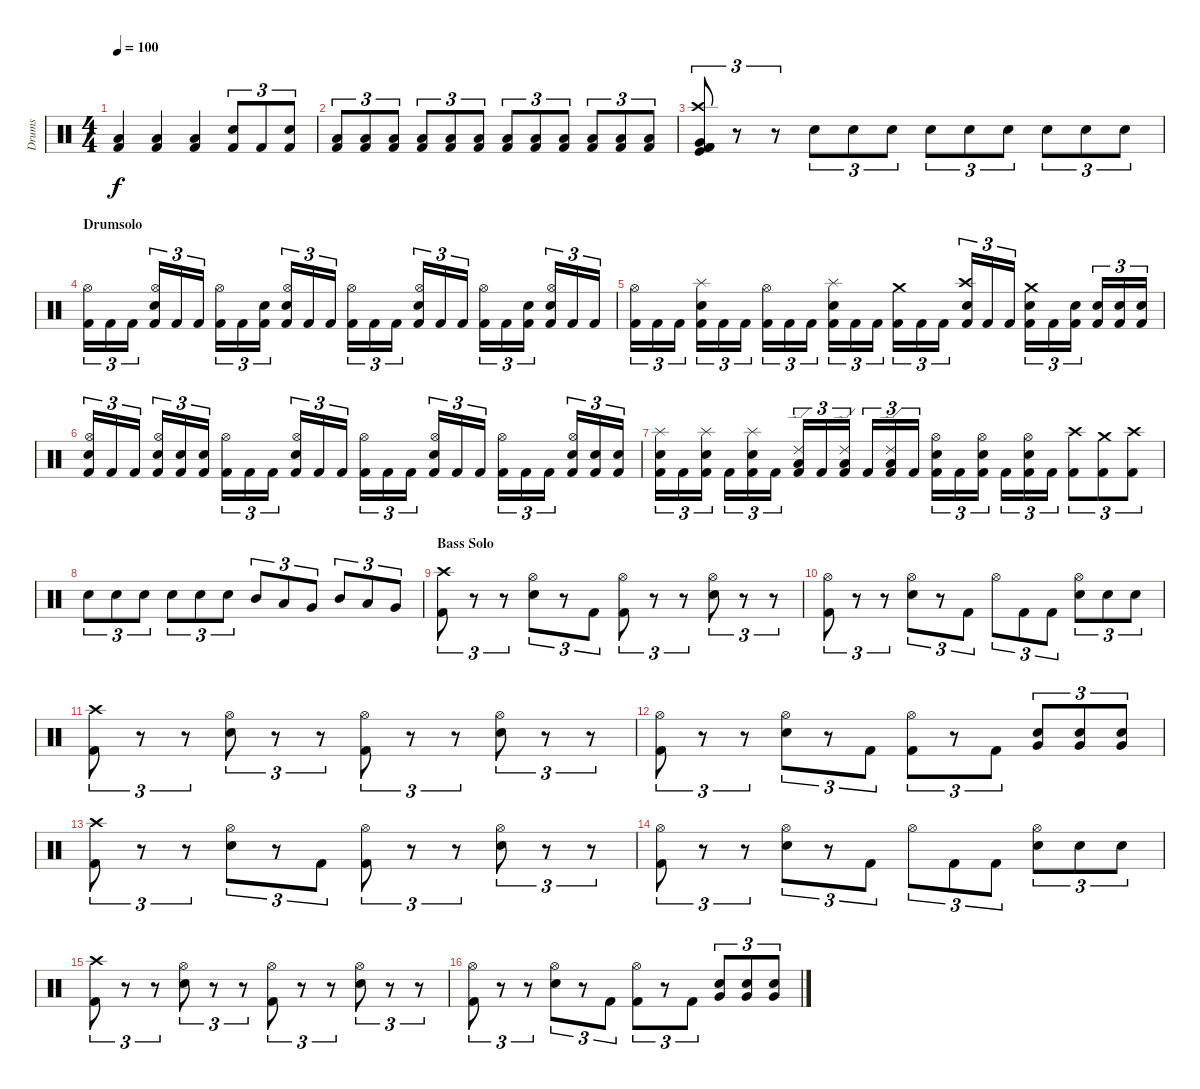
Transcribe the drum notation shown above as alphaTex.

\track ("Drums" "Drums") {instrument percussion}
\staff {score}
\articulation defaults
\ts (4 4)
\tempo 100
\clef neutral
\ks c
("Low Tom (hit)" "Kick (hit) 2").4{dy f} ("Low Tom (hit)" "Kick (hit) 2").4 ("Low Tom (hit)" "Kick (hit) 2").4 ("Snare (hit) 2" "Kick (hit) 2").8{tu (3 2)} "Kick (hit) 2".8{tu (3 2)} ("Snare (hit) 2" "Kick (hit) 2").8{tu (3 2)} |
("Low Tom (hit)" "Kick (hit) 2").8{tu (3 2)} ("Low Tom (hit)" "Kick (hit) 2").8{tu (3 2)} ("Low Tom (hit)" "Kick (hit) 2").8{tu (3 2)} ("Low Tom (hit)" "Kick (hit) 2").8{tu (3 2)} ("Low Tom (hit)" "Kick (hit) 2").8{tu (3 2)} ("Low Tom (hit)" "Kick (hit) 2").8{tu (3 2)} ("Low Tom (hit)" "Kick (hit) 2").8{tu (3 2)} ("Low Tom (hit)" "Kick (hit) 2").8{tu (3 2)} ("Low Tom (hit)" "Kick (hit) 2").8{tu (3 2)} ("Low Tom (hit)" "Kick (hit) 2").8{tu (3 2)} ("Low Tom (hit)" "Kick (hit) 2").8{tu (3 2)} ("Low Tom (hit)" "Kick (hit) 2").8{tu (3 2)} |
("Crash high (hit)" "Very Low Tom (hit)" "Kick (hit)" "Kick (hit) 2" "Kick (hit) 2").8{tu (3 2)} r.8{tu (3 2)} r.8{tu (3 2)} "Snare (hit) 2".8{tu (3 2)} "Snare (hit) 2".8{tu (3 2)} "Snare (hit) 2".8{tu (3 2)} "Snare (hit) 2".8{tu (3 2)} "Snare (hit) 2".8{tu (3 2)} "Snare (hit) 2".8{tu (3 2)} "Snare (hit) 2".8{tu (3 2)} "Snare (hit) 2".8{tu (3 2)} "Snare (hit) 2".8{tu (3 2)} |
\section ("" "Drumsolo")
("Hi-Hat (open)" "Kick (hit) 2").16{tu (3 2)} "Kick (hit) 2".16{tu (3 2)} "Kick (hit) 2".16{tu (3 2)} ("Hi-Hat (open)" "Electric Snare (hit)" "Kick (hit) 2").16{tu (3 2)} "Kick (hit) 2".16{tu (3 2)} "Kick (hit) 2".16{tu (3 2)} ("Hi-Hat (open)" "Kick (hit) 2").16{tu (3 2)} "Kick (hit) 2".16{tu (3 2)} ("Electric Snare (hit)" "Kick (hit) 2").16{tu (3 2)} ("Hi-Hat (open)" "Electric Snare (hit)" "Kick (hit) 2").16{tu (3 2)} "Kick (hit) 2".16{tu (3 2)} "Kick (hit) 2".16{tu (3 2)} ("Hi-Hat (open)" "Kick (hit) 2").16{tu (3 2)} "Kick (hit) 2".16{tu (3 2)} "Kick (hit) 2".16{tu (3 2)} ("Hi-Hat (open)" "Electric Snare (hit)" "Kick (hit) 2").16{tu (3 2)} "Kick (hit) 2".16{tu (3 2)} "Kick (hit) 2".16{tu (3 2)} ("Hi-Hat (open)" "Kick (hit) 2").16{tu (3 2)} "Kick (hit) 2".16{tu (3 2)} ("Electric Snare (hit)" "Kick (hit) 2").16{tu (3 2)} ("Hi-Hat (open)" "Electric Snare (hit)" "Kick (hit) 2").16{tu (3 2)} "Kick (hit) 2".16{tu (3 2)} "Kick (hit) 2".16{tu (3 2)} |
("Hi-Hat (open)" "Kick (hit) 2").16{tu (3 2)} "Kick (hit) 2".16{tu (3 2)} "Kick (hit) 2".16{tu (3 2)} ("Splash (hit)" "Electric Snare (hit)" "Kick (hit) 2").16{tu (3 2)} "Kick (hit) 2".16{tu (3 2)} "Kick (hit) 2".16{tu (3 2)} ("Hi-Hat (open)" "Kick (hit) 2").16{tu (3 2)} "Kick (hit) 2".16{tu (3 2)} "Kick (hit) 2".16{tu (3 2)} ("Splash (hit)" "Electric Snare (hit)" "Kick (hit) 2").16{tu (3 2)} "Kick (hit) 2".16{tu (3 2)} "Kick (hit) 2".16{tu (3 2)} ("Crash medium (hit)" "Kick (hit) 2").16{tu (3 2)} "Kick (hit) 2".16{tu (3 2)} "Kick (hit) 2".16{tu (3 2)} ("Crash high (hit)" "Electric Snare (hit)" "Kick (hit) 2").16{tu (3 2)} "Kick (hit) 2".16{tu (3 2)} "Kick (hit) 2".16{tu (3 2)} ("Crash medium (hit)" "Electric Snare (hit)" "Kick (hit) 2").16{tu (3 2)} "Kick (hit) 2".16{tu (3 2)} ("Electric Snare (hit)" "Kick (hit) 2").16{tu (3 2)} ("Electric Snare (hit)" "Kick (hit) 2").16{tu (3 2)} ("Electric Snare (hit)" "Kick (hit) 2").16{tu (3 2)} ("Electric Snare (hit)" "Kick (hit) 2").16{tu (3 2)} |
("Hi-Hat (open)" "Electric Snare (hit)" "Kick (hit) 2").16{tu (3 2)} "Kick (hit) 2".16{tu (3 2)} "Kick (hit) 2".16{tu (3 2)} ("Hi-Hat (open)" "Electric Snare (hit)" "Kick (hit) 2").16{tu (3 2)} ("Electric Snare (hit)" "Kick (hit) 2").16{tu (3 2)} ("Electric Snare (hit)" "Kick (hit) 2").16{tu (3 2)} ("Hi-Hat (open)" "Kick (hit) 2").16{tu (3 2)} "Kick (hit) 2".16{tu (3 2)} "Kick (hit) 2".16{tu (3 2)} ("Hi-Hat (open)" "Electric Snare (hit)" "Kick (hit) 2").16{tu (3 2)} "Kick (hit) 2".16{tu (3 2)} "Kick (hit) 2".16{tu (3 2)} ("Hi-Hat (open)" "Kick (hit) 2").16{tu (3 2)} "Kick (hit) 2".16{tu (3 2)} "Kick (hit) 2".16{tu (3 2)} ("Hi-Hat (open)" "Electric Snare (hit)" "Kick (hit) 2").16{tu (3 2)} "Kick (hit) 2".16{tu (3 2)} "Kick (hit) 2".16{tu (3 2)} ("Hi-Hat (open)" "Kick (hit) 2").16{tu (3 2)} "Kick (hit) 2".16{tu (3 2)} "Kick (hit) 2".16{tu (3 2)} ("Hi-Hat (open)" "Electric Snare (hit)" "Kick (hit) 2").16{tu (3 2)} ("Electric Snare (hit)" "Kick (hit) 2").16{tu (3 2)} ("Electric Snare (hit)" "Kick (hit) 2").16{tu (3 2)} |
("Splash (hit)" "Snare (hit) 2" "Kick (hit) 2").16{tu (3 2)} "Kick (hit) 2".16{tu (3 2)} ("Splash (hit)" "Snare (hit) 2" "Kick (hit) 2").16{tu (3 2)} "Kick (hit) 2".16{tu (3 2)} ("Splash (hit)" "Snare (hit) 2" "Kick (hit) 2").16{tu (3 2)} "Kick (hit) 2".16{tu (3 2)} ("Ride (edge) 2" "Low Tom (hit)" "Kick (hit) 2").16{tu (3 2)} "Kick (hit) 2".16{tu (3 2)} ("Ride (edge) 2" "Low Tom (hit)" "Kick (hit) 2").16{tu (3 2)} "Kick (hit) 2".16{tu (3 2)} ("Ride (edge) 2" "Low Tom (hit)" "Kick (hit) 2").16{tu (3 2)} "Kick (hit) 2".16{tu (3 2)} ("Hi-Hat (open)" "Snare (hit) 2" "Kick (hit) 2").16{tu (3 2)} "Kick (hit) 2".16{tu (3 2)} ("Hi-Hat (open)" "Snare (hit) 2" "Kick (hit) 2").16{tu (3 2)} "Kick (hit) 2".16{tu (3 2)} ("Hi-Hat (open)" "Snare (hit) 2" "Kick (hit) 2").16{tu (3 2)} "Kick (hit) 2".16{tu (3 2)} ("Crash high (hit)" "Kick (hit) 2").8{tu (3 2)} ("Crash medium (hit)" "Kick (hit) 2").8{tu (3 2)} ("Crash high (hit)" "Kick (hit) 2").8{tu (3 2)} |
"Snare (hit) 2".8{tu (3 2)} "Snare (hit) 2".8{tu (3 2)} "Snare (hit) 2".8{tu (3 2)} "Snare (hit) 2".8{tu (3 2)} "Snare (hit) 2".8{tu (3 2)} "Snare (hit) 2".8{tu (3 2)} "Mid Tom (hit)".8{tu (3 2)} "Low Tom (hit)".8{tu (3 2)} "Very Low Tom (hit)".8{tu (3 2)} "Mid Tom (hit)".8{tu (3 2)} "Low Tom (hit)".8{tu (3 2)} "Very Low Tom (hit)".8{tu (3 2)} |
\section ("" "Bass Solo")
("Crash high (hit)" "Kick (hit) 2").8{tu (3 2)} r.8{tu (3 2)} r.8{tu (3 2)} ("Hi-Hat (open)" "Electric Snare (hit)").8{tu (3 2)} r.8{tu (3 2)} "Kick (hit) 2".8{tu (3 2)} ("Hi-Hat (open)" "Kick (hit) 2").8{tu (3 2)} r.8{tu (3 2)} r.8{tu (3 2)} ("Hi-Hat (open)" "Electric Snare (hit)").8{tu (3 2)} r.8{tu (3 2)} r.8{tu (3 2)} |
("Hi-Hat (open)" "Kick (hit) 2").8{tu (3 2)} r.8{tu (3 2)} r.8{tu (3 2)} ("Hi-Hat (open)" "Electric Snare (hit)").8{tu (3 2)} r.8{tu (3 2)} "Kick (hit) 2".8{tu (3 2)} "Hi-Hat (open)".8{tu (3 2)} "Kick (hit) 2".8{tu (3 2)} "Kick (hit) 2".8{tu (3 2)} ("Hi-Hat (open)" "Snare (hit) 2").8{tu (3 2)} "Snare (hit) 2".8{tu (3 2)} "Snare (hit) 2".8{tu (3 2)} |
("Crash high (hit)" "Kick (hit) 2").8{tu (3 2)} r.8{tu (3 2)} r.8{tu (3 2)} ("Hi-Hat (open)" "Electric Snare (hit)").8{tu (3 2)} r.8{tu (3 2)} r.8{tu (3 2)} ("Hi-Hat (open)" "Kick (hit) 2").8{tu (3 2)} r.8{tu (3 2)} r.8{tu (3 2)} ("Hi-Hat (open)" "Electric Snare (hit)").8{tu (3 2)} r.8{tu (3 2)} r.8{tu (3 2)} |
("Hi-Hat (open)" "Kick (hit) 2").8{tu (3 2)} r.8{tu (3 2)} r.8{tu (3 2)} ("Hi-Hat (open)" "Electric Snare (hit)").8{tu (3 2)} r.8{tu (3 2)} "Kick (hit) 2".8{tu (3 2)} ("Hi-Hat (open)" "Kick (hit) 2").8{tu (3 2)} r.8{tu (3 2)} "Kick (hit) 2".8{tu (3 2)} ("Very Low Tom (hit)" "Snare (hit) 2").8{tu (3 2)} ("Very Low Tom (hit)" "Snare (hit) 2").8{tu (3 2)} ("Very Low Tom (hit)" "Snare (hit) 2").8{tu (3 2)} |
("Crash high (hit)" "Kick (hit) 2").8{tu (3 2)} r.8{tu (3 2)} r.8{tu (3 2)} ("Hi-Hat (open)" "Electric Snare (hit)").8{tu (3 2)} r.8{tu (3 2)} "Kick (hit) 2".8{tu (3 2)} ("Hi-Hat (open)" "Kick (hit) 2").8{tu (3 2)} r.8{tu (3 2)} r.8{tu (3 2)} ("Hi-Hat (open)" "Electric Snare (hit)").8{tu (3 2)} r.8{tu (3 2)} r.8{tu (3 2)} |
("Hi-Hat (open)" "Kick (hit) 2").8{tu (3 2)} r.8{tu (3 2)} r.8{tu (3 2)} ("Hi-Hat (open)" "Electric Snare (hit)").8{tu (3 2)} r.8{tu (3 2)} "Kick (hit) 2".8{tu (3 2)} "Hi-Hat (open)".8{tu (3 2)} "Kick (hit) 2".8{tu (3 2)} "Kick (hit) 2".8{tu (3 2)} ("Hi-Hat (open)" "Snare (hit) 2").8{tu (3 2)} "Snare (hit) 2".8{tu (3 2)} "Snare (hit) 2".8{tu (3 2)} |
("Crash high (hit)" "Kick (hit) 2").8{tu (3 2)} r.8{tu (3 2)} r.8{tu (3 2)} ("Hi-Hat (open)" "Electric Snare (hit)").8{tu (3 2)} r.8{tu (3 2)} r.8{tu (3 2)} ("Hi-Hat (open)" "Kick (hit) 2").8{tu (3 2)} r.8{tu (3 2)} r.8{tu (3 2)} ("Hi-Hat (open)" "Electric Snare (hit)").8{tu (3 2)} r.8{tu (3 2)} r.8{tu (3 2)} |
("Hi-Hat (open)" "Kick (hit) 2").8{tu (3 2)} r.8{tu (3 2)} r.8{tu (3 2)} ("Hi-Hat (open)" "Electric Snare (hit)").8{tu (3 2)} r.8{tu (3 2)} "Kick (hit) 2".8{tu (3 2)} ("Hi-Hat (open)" "Kick (hit) 2").8{tu (3 2)} r.8{tu (3 2)} "Kick (hit) 2".8{tu (3 2)} ("Very Low Tom (hit)" "Snare (hit) 2").8{tu (3 2)} ("Very Low Tom (hit)" "Snare (hit) 2").8{tu (3 2)} ("Very Low Tom (hit)" "Snare (hit) 2").8{tu (3 2)}
